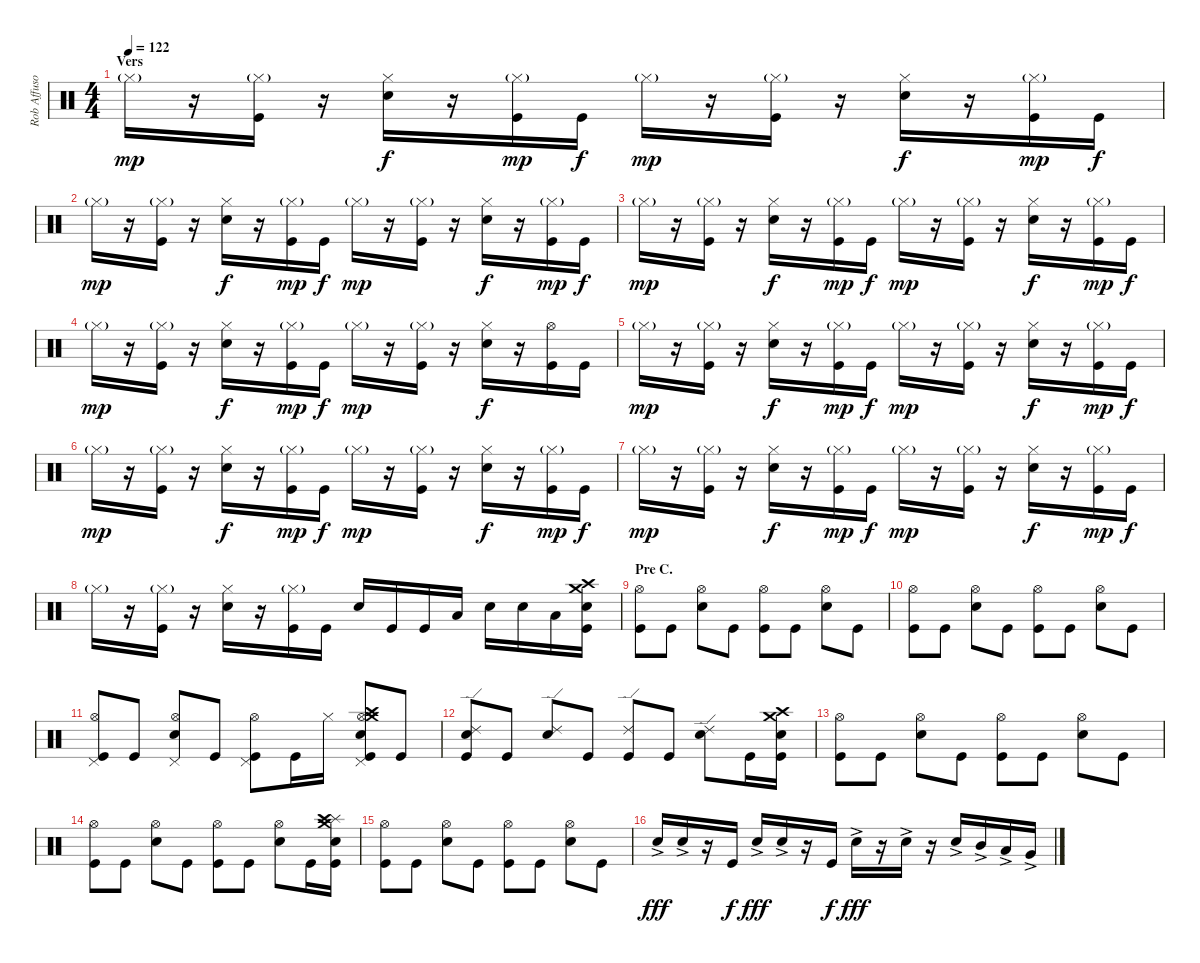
\track ("Rob Affuso - Drums" "Rob Affuso") {instrument percussion}
\staff {score}
\articulation defaults
\ts (4 4)
\section ("" "Vers")
\tempo 122
\clef neutral
\ks c "Hi-Hat (closed)"{g}.16{dy mp}
r.16 ("Hi-Hat (closed)"{g} "Kick (hit)").16 r.16 ("Hi-Hat (closed)" "Snare (hit) 2").16{dy f} r.16 ("Hi-Hat (closed)"{g} "Kick (hit)").16{dy mp} "Kick (hit)".16{dy f} "Hi-Hat (closed)"{g}.16{dy mp} r.16 ("Hi-Hat (closed)"{g} "Kick (hit)").16 r.16 ("Hi-Hat (closed)" "Snare (hit) 2").16{dy f} r.16 ("Hi-Hat (closed)"{g} "Kick (hit)").16{dy mp} "Kick (hit)".16{dy f} |
"Hi-Hat (closed)"{g}.16{dy mp} r.16 ("Hi-Hat (closed)"{g} "Kick (hit)").16 r.16 ("Hi-Hat (closed)" "Snare (hit) 2").16{dy f} r.16 ("Hi-Hat (closed)"{g} "Kick (hit)").16{dy mp} "Kick (hit)".16{dy f} "Hi-Hat (closed)"{g}.16{dy mp} r.16 ("Hi-Hat (closed)"{g} "Kick (hit)").16 r.16 ("Hi-Hat (closed)" "Snare (hit) 2").16{dy f} r.16 ("Hi-Hat (closed)"{g} "Kick (hit)").16{dy mp} "Kick (hit)".16{dy f} |
"Hi-Hat (closed)"{g}.16{dy mp} r.16 ("Hi-Hat (closed)"{g} "Kick (hit)").16 r.16 ("Hi-Hat (closed)" "Snare (hit) 2").16{dy f} r.16 ("Hi-Hat (closed)"{g} "Kick (hit)").16{dy mp} "Kick (hit)".16{dy f} "Hi-Hat (closed)"{g}.16{dy mp} r.16 ("Hi-Hat (closed)"{g} "Kick (hit)").16 r.16 ("Hi-Hat (closed)" "Snare (hit) 2").16{dy f} r.16 ("Hi-Hat (closed)"{g} "Kick (hit)").16{dy mp} "Kick (hit)".16{dy f} |
"Hi-Hat (closed)"{g}.16{dy mp} r.16 ("Hi-Hat (closed)"{g} "Kick (hit)").16 r.16 ("Hi-Hat (closed)" "Snare (hit) 2").16{dy f} r.16 ("Hi-Hat (closed)"{g} "Kick (hit)").16{dy mp} "Kick (hit)".16{dy f} "Hi-Hat (closed)"{g}.16{dy mp} r.16 ("Hi-Hat (closed)"{g} "Kick (hit)").16 r.16 ("Hi-Hat (closed)" "Snare (hit) 2").16{dy f} r.16 ("Hi-Hat (open)" "Kick (hit)").16 "Kick (hit)".16 |
"Hi-Hat (closed)"{g}.16{dy mp} r.16 ("Hi-Hat (closed)"{g} "Kick (hit)").16 r.16 ("Hi-Hat (closed)" "Snare (hit) 2").16{dy f} r.16 ("Hi-Hat (closed)"{g} "Kick (hit)").16{dy mp} "Kick (hit)".16{dy f} "Hi-Hat (closed)"{g}.16{dy mp} r.16 ("Hi-Hat (closed)"{g} "Kick (hit)").16 r.16 ("Hi-Hat (closed)" "Snare (hit) 2").16{dy f} r.16 ("Hi-Hat (closed)"{g} "Kick (hit)").16{dy mp} "Kick (hit)".16{dy f} |
"Hi-Hat (closed)"{g}.16{dy mp} r.16 ("Hi-Hat (closed)"{g} "Kick (hit)").16 r.16 ("Hi-Hat (closed)" "Snare (hit) 2").16{dy f} r.16 ("Hi-Hat (closed)"{g} "Kick (hit)").16{dy mp} "Kick (hit)".16{dy f} "Hi-Hat (closed)"{g}.16{dy mp} r.16 ("Hi-Hat (closed)"{g} "Kick (hit)").16 r.16 ("Hi-Hat (closed)" "Snare (hit) 2").16{dy f} r.16 ("Hi-Hat (closed)"{g} "Kick (hit)").16{dy mp} "Kick (hit)".16{dy f} |
"Hi-Hat (closed)"{g}.16{dy mp} r.16 ("Hi-Hat (closed)"{g} "Kick (hit)").16 r.16 ("Hi-Hat (closed)" "Snare (hit) 2").16{dy f} r.16 ("Hi-Hat (closed)"{g} "Kick (hit)").16{dy mp} "Kick (hit)".16{dy f} "Hi-Hat (closed)"{g}.16{dy mp} r.16 ("Hi-Hat (closed)"{g} "Kick (hit)").16 r.16 ("Hi-Hat (closed)" "Snare (hit) 2").16{dy f} r.16 ("Hi-Hat (closed)"{g} "Kick (hit)").16{dy mp} "Kick (hit)".16{dy f} |
"Hi-Hat (closed)"{g}.16{volume 16} r.16 ("Hi-Hat (closed)"{g} "Kick (hit)").16 r.16 ("Hi-Hat (closed)" "Snare (hit) 2").16 r.16 ("Hi-Hat (closed)"{g} "Kick (hit)").16 "Kick (hit)".16 "Snare (hit) 2".16 "Kick (hit)".16 "Kick (hit)".16 "Low Tom (hit)".16 "Snare (hit) 2".16 "Snare (hit) 2".16 "Low Tom (hit)".16 ("Crash high (hit)" "Crash medium (hit)" "Snare (hit) 2" "Kick (hit)").16 |
\section ("" "Pre C.")
("Hi-Hat (open)" "Kick (hit)").8{volume 13} "Kick (hit)".8 ("Hi-Hat (open)" "Snare (hit) 2").8 "Kick (hit)".8 ("Hi-Hat (open)" "Kick (hit)").8 "Kick (hit)".8 ("Hi-Hat (open)" "Snare (hit) 2").8 "Kick (hit)".8 |
("Hi-Hat (open)" "Kick (hit)").8 "Kick (hit)".8 ("Hi-Hat (open)" "Snare (hit) 2").8 "Kick (hit)".8 ("Hi-Hat (open)" "Kick (hit)").8 "Kick (hit)".8 ("Hi-Hat (open)" "Snare (hit) 2").8 "Kick (hit)".8 |
("Hi-Hat (open)" "Pedal Hi-Hat (hit)" "Kick (hit)").8 "Kick (hit)".8 ("Hi-Hat (open)" "Pedal Hi-Hat (hit)" "Snare (hit) 2").8 "Kick (hit)".8 ("Hi-Hat (open)" "Pedal Hi-Hat (hit)" "Kick (hit)").8 "Kick (hit)".16 "Hi-Hat (closed)".16 ("Hi-Hat (open)" "Pedal Hi-Hat (hit)" "Crash medium (hit)" "Snare (hit) 2" "Crash high (hit)" "Kick (hit)").8 "Kick (hit)".8 |
("Ride (edge) 2" "Snare (hit) 2" "Kick (hit)").8 "Kick (hit)".8 ("Ride (edge) 2" "Snare (hit) 2").8 "Kick (hit)".8 ("Ride (edge) 2" "Kick (hit)").8 "Kick (hit)".8 ("Ride (edge) 2" "Snare (hit) 2").8 "Kick (hit)".16 ("Crash medium (hit)" "Crash high (hit)" "Snare (hit) 2" "Kick (hit)").16 |
("Hi-Hat (open)" "Kick (hit)").8 "Kick (hit)".8 ("Hi-Hat (open)" "Snare (hit) 2").8 "Kick (hit)".8 ("Hi-Hat (open)" "Kick (hit)").8 "Kick (hit)".8 ("Hi-Hat (open)" "Snare (hit) 2").8 "Kick (hit)".8 |
("Hi-Hat (open)" "Kick (hit)").8 "Kick (hit)".8 ("Hi-Hat (open)" "Snare (hit) 2").8 "Kick (hit)".8 ("Hi-Hat (open)" "Kick (hit)").8 "Kick (hit)".8 ("Hi-Hat (open)" "Snare (hit) 2").8 "Kick (hit)".16 ("Splash (hit)" "Crash medium (hit)" "Crash high (hit)" "Snare (hit) 2" "Kick (hit)").16 |
("Hi-Hat (open)" "Kick (hit)").8 "Kick (hit)".8 ("Hi-Hat (open)" "Snare (hit) 2").8 "Kick (hit)".8 ("Hi-Hat (open)" "Kick (hit)").8 "Kick (hit)".8 ("Hi-Hat (open)" "Snare (hit) 2").8 "Kick (hit)".8 |
"Snare (hit) 2"{ac}.16{dy fff} "Snare (hit) 2"{ac}.16 r.16 "Kick (hit)".16{dy f} "Snare (hit) 2"{ac}.16{dy fff} "Snare (hit) 2"{ac}.16 r.16 "Kick (hit)".16{dy f} "Snare (hit) 2"{ac}.16{dy fff} r.16 "Snare (hit) 2"{ac}.16 r.16 "Snare (hit) 2"{ac}.16 "Mid Tom (hit)"{ac}.16 "Low Tom (hit)"{ac}.16 "Very Low Tom (hit)"{ac}.16
